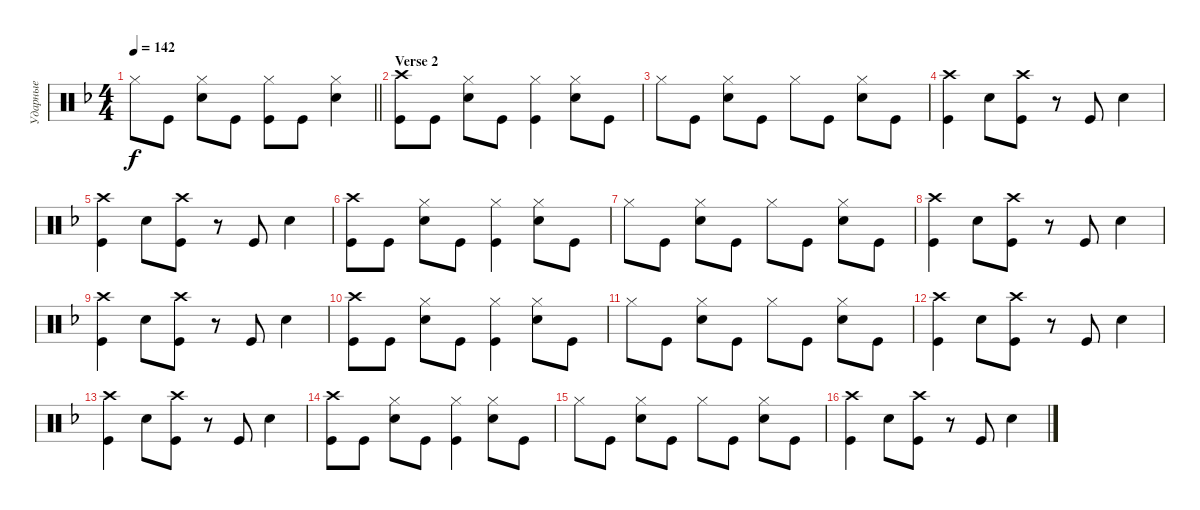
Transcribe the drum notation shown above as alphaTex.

\track ("Ударные" "Ударные") {instrument percussion}
\staff {score}
\articulation defaults
\ts (4 4)
\tempo 142
\clef neutral
\barLineRight lightlight
\ks dminor "Hi-Hat (closed)".8{dy f} "Kick (hit)".8
("Snare (hit) 2" "Hi-Hat (closed)").8 "Kick (hit)".8 ("Kick (hit)" "Hi-Hat (closed)").8 "Kick (hit)".8 ("Snare (hit) 2" "Hi-Hat (closed)").4 |
\section ("" "Verse 2")
("Kick (hit)" "Crash high (hit)").8 "Kick (hit)".8 ("Snare (hit) 2" "Hi-Hat (closed)").8 "Kick (hit)".8 ("Kick (hit)" "Hi-Hat (closed)").4 ("Snare (hit) 2" "Hi-Hat (closed)").8 "Kick (hit)".8 |
"Hi-Hat (closed)".8 "Kick (hit)".8 ("Snare (hit) 2" "Hi-Hat (closed)").8 "Kick (hit)".8 "Hi-Hat (closed)".8 "Kick (hit)".8 ("Snare (hit) 2" "Hi-Hat (closed)").8 "Kick (hit)".8 |
("Kick (hit)" "Crash high (hit)").4 "Snare (hit) 2".8 ("Kick (hit)" "Crash high (hit)").8 r.8 "Kick (hit)".8 "Snare (hit) 2".4 |
("Kick (hit)" "Crash high (hit)").4 "Snare (hit) 2".8 ("Kick (hit)" "Crash high (hit)").8 r.8 "Kick (hit)".8 "Snare (hit) 2".4 |
("Kick (hit)" "Crash high (hit)").8 "Kick (hit)".8 ("Snare (hit) 2" "Hi-Hat (closed)").8 "Kick (hit)".8 ("Kick (hit)" "Hi-Hat (closed)").4 ("Snare (hit) 2" "Hi-Hat (closed)").8 "Kick (hit)".8 |
"Hi-Hat (closed)".8 "Kick (hit)".8 ("Snare (hit) 2" "Hi-Hat (closed)").8 "Kick (hit)".8 "Hi-Hat (closed)".8 "Kick (hit)".8 ("Snare (hit) 2" "Hi-Hat (closed)").8 "Kick (hit)".8 |
("Kick (hit)" "Crash high (hit)").4 "Snare (hit) 2".8 ("Kick (hit)" "Crash high (hit)").8 r.8 "Kick (hit)".8 "Snare (hit) 2".4 |
("Kick (hit)" "Crash high (hit)").4 "Snare (hit) 2".8 ("Kick (hit)" "Crash high (hit)").8 r.8 "Kick (hit)".8 "Snare (hit) 2".4 |
("Kick (hit)" "Crash high (hit)").8 "Kick (hit)".8 ("Snare (hit) 2" "Hi-Hat (closed)").8 "Kick (hit)".8 ("Kick (hit)" "Hi-Hat (closed)").4 ("Snare (hit) 2" "Hi-Hat (closed)").8 "Kick (hit)".8 |
"Hi-Hat (closed)".8 "Kick (hit)".8 ("Snare (hit) 2" "Hi-Hat (closed)").8 "Kick (hit)".8 "Hi-Hat (closed)".8 "Kick (hit)".8 ("Snare (hit) 2" "Hi-Hat (closed)").8 "Kick (hit)".8 |
("Kick (hit)" "Crash high (hit)").4 "Snare (hit) 2".8 ("Kick (hit)" "Crash high (hit)").8 r.8 "Kick (hit)".8 "Snare (hit) 2".4 |
("Kick (hit)" "Crash high (hit)").4 "Snare (hit) 2".8 ("Kick (hit)" "Crash high (hit)").8 r.8 "Kick (hit)".8 "Snare (hit) 2".4 |
("Kick (hit)" "Crash high (hit)").8 "Kick (hit)".8 ("Snare (hit) 2" "Hi-Hat (closed)").8 "Kick (hit)".8 ("Kick (hit)" "Hi-Hat (closed)").4 ("Snare (hit) 2" "Hi-Hat (closed)").8 "Kick (hit)".8 |
"Hi-Hat (closed)".8 "Kick (hit)".8 ("Snare (hit) 2" "Hi-Hat (closed)").8 "Kick (hit)".8 "Hi-Hat (closed)".8 "Kick (hit)".8 ("Snare (hit) 2" "Hi-Hat (closed)").8 "Kick (hit)".8 |
("Kick (hit)" "Crash high (hit)").4 "Snare (hit) 2".8 ("Kick (hit)" "Crash high (hit)").8 r.8 "Kick (hit)".8 "Snare (hit) 2".4
